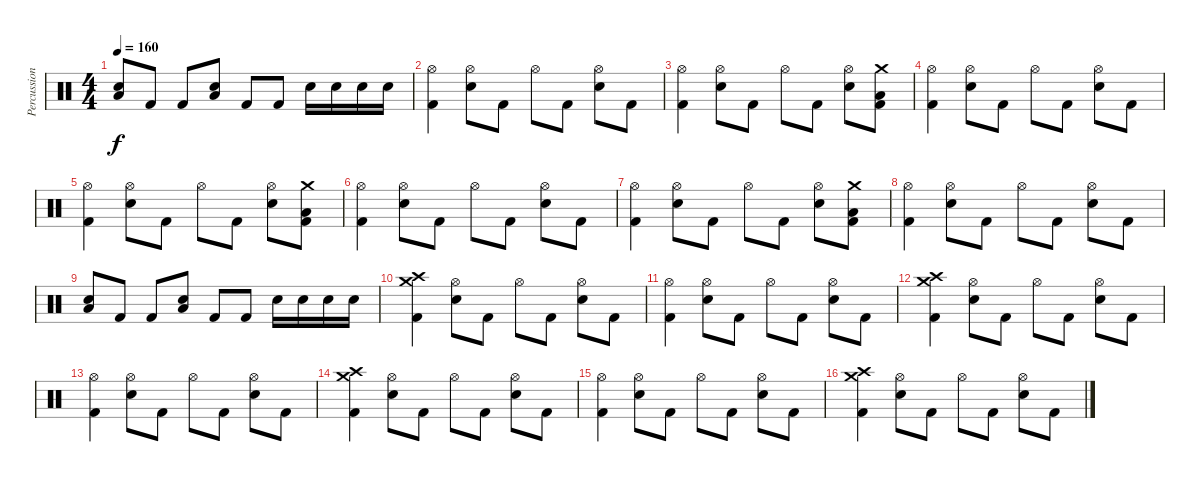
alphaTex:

\track ("Percussion" "Percussion") {instrument percussion}
\staff {score}
\articulation defaults
\ts (4 4)
\tempo 160
\clef neutral
\ks c
("Electric Snare (hit)" "Low Floor Tom (hit)").8{dy f} "Kick (hit) 2".8 "Kick (hit) 2".8 ("Electric Snare (hit)" "Low Floor Tom (hit)").8 "Kick (hit) 2".8 "Kick (hit) 2".8 "Electric Snare (hit)".16 "Electric Snare (hit)".16 "Electric Snare (hit)".16 "Electric Snare (hit)".16 |
("Hi-Hat (open)" "Kick (hit) 2").4 ("Hi-Hat (open)" "Electric Snare (hit)").8 "Kick (hit) 2".8 "Hi-Hat (open)".8 "Kick (hit) 2".8 ("Hi-Hat (open)" "Electric Snare (hit)").8 "Kick (hit) 2".8 |
("Hi-Hat (open)" "Kick (hit) 2").4 ("Hi-Hat (open)" "Electric Snare (hit)").8 "Kick (hit) 2".8 "Hi-Hat (open)".8 "Kick (hit) 2".8 ("Hi-Hat (open)" "Electric Snare (hit)").8 ("Crash medium (hit)" "Low Floor Tom (hit)" "Kick (hit) 2").8 |
("Hi-Hat (open)" "Kick (hit) 2").4 ("Hi-Hat (open)" "Electric Snare (hit)").8 "Kick (hit) 2".8 "Hi-Hat (open)".8 "Kick (hit) 2".8 ("Hi-Hat (open)" "Electric Snare (hit)").8 "Kick (hit) 2".8 |
("Hi-Hat (open)" "Kick (hit) 2").4 ("Hi-Hat (open)" "Electric Snare (hit)").8 "Kick (hit) 2".8 "Hi-Hat (open)".8 "Kick (hit) 2".8 ("Hi-Hat (open)" "Electric Snare (hit)").8 ("Crash medium (hit)" "Low Floor Tom (hit)" "Kick (hit) 2").8 |
("Hi-Hat (open)" "Kick (hit) 2").4 ("Hi-Hat (open)" "Electric Snare (hit)").8 "Kick (hit) 2".8 "Hi-Hat (open)".8 "Kick (hit) 2".8 ("Hi-Hat (open)" "Electric Snare (hit)").8 "Kick (hit) 2".8 |
("Hi-Hat (open)" "Kick (hit) 2").4 ("Hi-Hat (open)" "Electric Snare (hit)").8 "Kick (hit) 2".8 "Hi-Hat (open)".8 "Kick (hit) 2".8 ("Hi-Hat (open)" "Electric Snare (hit)").8 ("Crash medium (hit)" "Low Floor Tom (hit)" "Kick (hit) 2").8 |
("Hi-Hat (open)" "Kick (hit) 2").4 ("Hi-Hat (open)" "Electric Snare (hit)").8 "Kick (hit) 2".8 "Hi-Hat (open)".8 "Kick (hit) 2".8 ("Hi-Hat (open)" "Electric Snare (hit)").8 "Kick (hit) 2".8 |
("Electric Snare (hit)" "Low Floor Tom (hit)").8 "Kick (hit) 2".8 "Kick (hit) 2".8 ("Electric Snare (hit)" "Low Floor Tom (hit)").8 "Kick (hit) 2".8 "Kick (hit) 2".8 "Electric Snare (hit)".16 "Electric Snare (hit)".16 "Electric Snare (hit)".16 "Electric Snare (hit)".16 |
("Crash medium (hit)" "Crash high (hit)" "Kick (hit) 2").4 ("Hi-Hat (open)" "Electric Snare (hit)").8 "Kick (hit) 2".8 "Hi-Hat (open)".8 "Kick (hit) 2".8 ("Hi-Hat (open)" "Electric Snare (hit)").8 "Kick (hit) 2".8 |
("Hi-Hat (open)" "Kick (hit) 2").4 ("Hi-Hat (open)" "Electric Snare (hit)").8 "Kick (hit) 2".8 "Hi-Hat (open)".8 "Kick (hit) 2".8 ("Hi-Hat (open)" "Electric Snare (hit)").8 "Kick (hit) 2".8 |
("Crash medium (hit)" "Crash high (hit)" "Kick (hit) 2").4 ("Hi-Hat (open)" "Electric Snare (hit)").8 "Kick (hit) 2".8 "Hi-Hat (open)".8 "Kick (hit) 2".8 ("Hi-Hat (open)" "Electric Snare (hit)").8 "Kick (hit) 2".8 |
("Hi-Hat (open)" "Kick (hit) 2").4 ("Hi-Hat (open)" "Electric Snare (hit)").8 "Kick (hit) 2".8 "Hi-Hat (open)".8 "Kick (hit) 2".8 ("Hi-Hat (open)" "Electric Snare (hit)").8 "Kick (hit) 2".8 |
("Crash medium (hit)" "Crash high (hit)" "Kick (hit) 2").4 ("Hi-Hat (open)" "Electric Snare (hit)").8 "Kick (hit) 2".8 "Hi-Hat (open)".8 "Kick (hit) 2".8 ("Hi-Hat (open)" "Electric Snare (hit)").8 "Kick (hit) 2".8 |
("Hi-Hat (open)" "Kick (hit) 2").4 ("Hi-Hat (open)" "Electric Snare (hit)").8 "Kick (hit) 2".8 "Hi-Hat (open)".8 "Kick (hit) 2".8 ("Hi-Hat (open)" "Electric Snare (hit)").8 "Kick (hit) 2".8 |
("Crash medium (hit)" "Crash high (hit)" "Kick (hit) 2").4 ("Hi-Hat (open)" "Electric Snare (hit)").8 "Kick (hit) 2".8 "Hi-Hat (open)".8 "Kick (hit) 2".8 ("Hi-Hat (open)" "Electric Snare (hit)").8 "Kick (hit) 2".8
